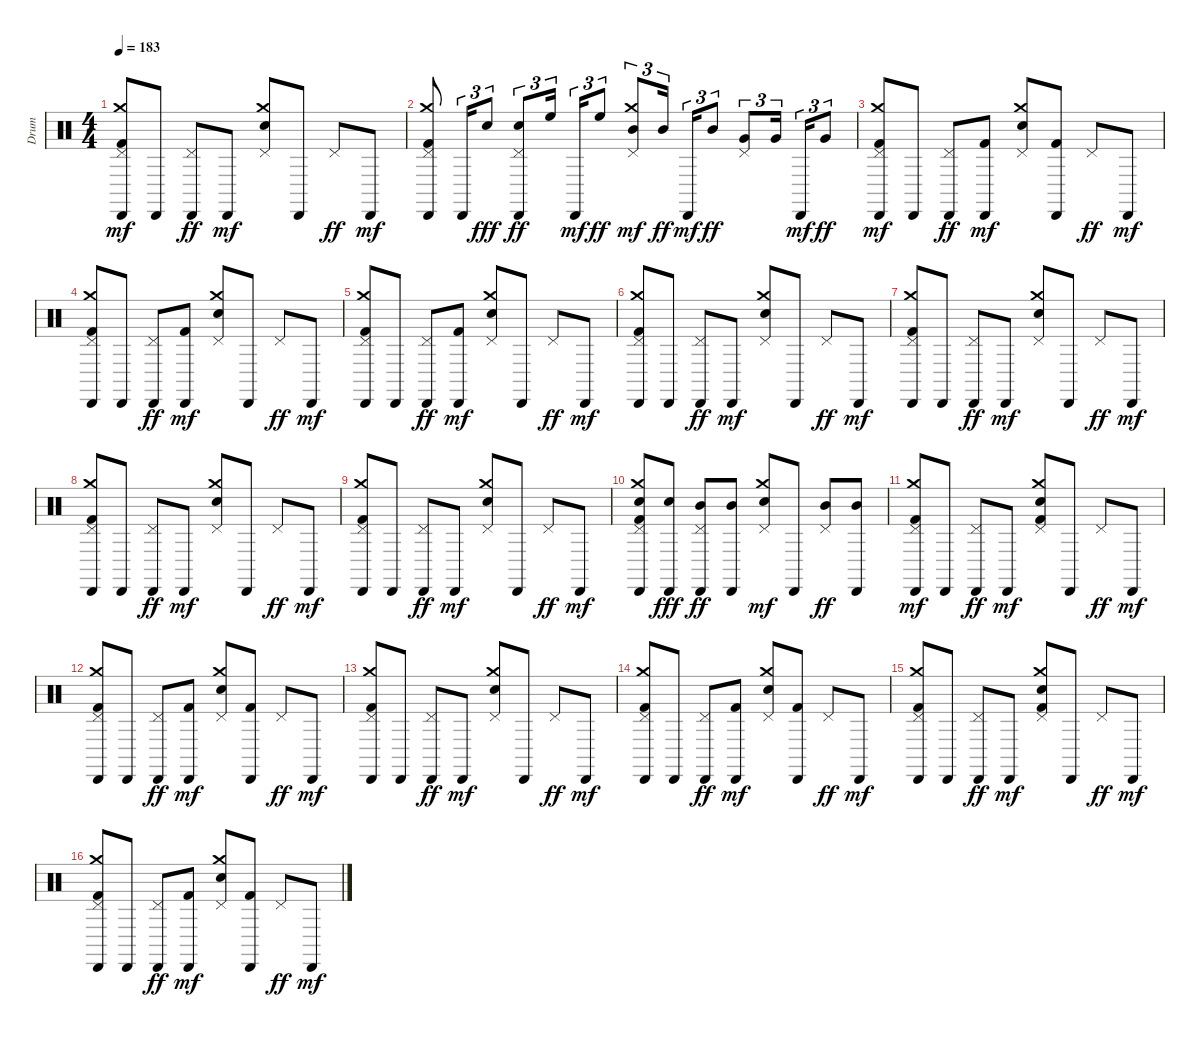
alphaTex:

\track ("Drum" "Drum") {instrument percussion}
\staff {score}
\articulation defaults
\ts (4 4)
\tempo 183
\clef neutral
\ks c
("Cabasa (hit)" "Kick (hit) 2" "Pedal Hi-Hat (hit)" "Crash medium (hit)").8{dy mf} "Cabasa (hit)".8 ("Cabasa (hit)" "Pedal Hi-Hat (hit)").8{dy ff} "Cabasa (hit)".8{dy mf} ("Electric Snare (hit)" "Pedal Hi-Hat (hit)" "Crash medium (hit)").8 "Cabasa (hit)".8 "Pedal Hi-Hat (hit)".8{dy ff} "Cabasa (hit)".8{dy mf} |
("Cabasa (hit)" "Kick (hit) 2" "Pedal Hi-Hat (hit)" "Crash medium (hit)").8 "Cabasa (hit)".16{tu (3 2)} "Electric Snare (hit)".8{tu (3 2) dy fff} ("Cabasa (hit)" "Electric Snare (hit)" "Pedal Hi-Hat (hit)").8{tu (3 2) dy ff} "High Floor Tom (hit)".16{tu (3 2) beam splitsecondary} "Cabasa (hit)".16{tu (3 2) dy mf} "High Floor Tom (hit)".8{tu (3 2) dy ff} ("Mid Tom (hit)" "Pedal Hi-Hat (hit)" "Crash medium (hit)").8{tu (3 2) dy mf} "Mid Tom (hit)".16{tu (3 2) dy ff beam splitsecondary} "Cabasa (hit)".16{tu (3 2) dy mf} "Mid Tom (hit)".8{tu (3 2) dy ff} ("Very Low Tom (hit)" "Pedal Hi-Hat (hit)").8{tu (3 2)} "Very Low Tom (hit)".16{tu (3 2) beam splitsecondary} "Cabasa (hit)".16{tu (3 2) dy mf} "Very Low Tom (hit)".8{tu (3 2) dy ff} |
("Cabasa (hit)" "Kick (hit) 2" "Pedal Hi-Hat (hit)" "Crash medium (hit)").8{dy mf} "Cabasa (hit)".8 ("Cabasa (hit)" "Pedal Hi-Hat (hit)").8{dy ff} ("Cabasa (hit)" "Kick (hit) 2").8{dy mf} ("Electric Snare (hit)" "Pedal Hi-Hat (hit)" "Crash medium (hit)").8 ("Cabasa (hit)" "Kick (hit) 2").8 "Pedal Hi-Hat (hit)".8{dy ff} "Cabasa (hit)".8{dy mf} |
("Cabasa (hit)" "Kick (hit) 2" "Pedal Hi-Hat (hit)" "Crash medium (hit)").8 "Cabasa (hit)".8 ("Cabasa (hit)" "Pedal Hi-Hat (hit)").8{dy ff} ("Cabasa (hit)" "Kick (hit) 2").8{dy mf} ("Electric Snare (hit)" "Pedal Hi-Hat (hit)" "Crash medium (hit)").8 "Cabasa (hit)".8 "Pedal Hi-Hat (hit)".8{dy ff} "Cabasa (hit)".8{dy mf} |
("Cabasa (hit)" "Kick (hit) 2" "Pedal Hi-Hat (hit)" "Crash medium (hit)").8 "Cabasa (hit)".8 ("Cabasa (hit)" "Pedal Hi-Hat (hit)").8{dy ff} ("Cabasa (hit)" "Kick (hit) 2").8{dy mf} ("Electric Snare (hit)" "Pedal Hi-Hat (hit)" "Crash medium (hit)").8 "Cabasa (hit)".8 "Pedal Hi-Hat (hit)".8{dy ff} "Cabasa (hit)".8{dy mf} |
("Cabasa (hit)" "Kick (hit) 2" "Pedal Hi-Hat (hit)" "Crash medium (hit)").8 "Cabasa (hit)".8 ("Cabasa (hit)" "Pedal Hi-Hat (hit)").8{dy ff} "Cabasa (hit)".8{dy mf} ("Electric Snare (hit)" "Pedal Hi-Hat (hit)" "Crash medium (hit)").8 "Cabasa (hit)".8 "Pedal Hi-Hat (hit)".8{dy ff} "Cabasa (hit)".8{dy mf} |
("Cabasa (hit)" "Kick (hit) 2" "Pedal Hi-Hat (hit)" "Crash medium (hit)").8 "Cabasa (hit)".8 ("Cabasa (hit)" "Pedal Hi-Hat (hit)").8{dy ff} "Cabasa (hit)".8{dy mf} ("Electric Snare (hit)" "Pedal Hi-Hat (hit)" "Crash medium (hit)").8 "Cabasa (hit)".8 "Pedal Hi-Hat (hit)".8{dy ff} "Cabasa (hit)".8{dy mf} |
("Cabasa (hit)" "Kick (hit) 2" "Pedal Hi-Hat (hit)" "Crash medium (hit)").8 "Cabasa (hit)".8 ("Cabasa (hit)" "Pedal Hi-Hat (hit)").8{dy ff} "Cabasa (hit)".8{dy mf} ("Electric Snare (hit)" "Pedal Hi-Hat (hit)" "Crash medium (hit)").8 "Cabasa (hit)".8 "Pedal Hi-Hat (hit)".8{dy ff} "Cabasa (hit)".8{dy mf} |
("Cabasa (hit)" "Kick (hit) 2" "Pedal Hi-Hat (hit)" "Crash medium (hit)").8 "Cabasa (hit)".8 ("Cabasa (hit)" "Pedal Hi-Hat (hit)").8{dy ff} "Cabasa (hit)".8{dy mf} ("Electric Snare (hit)" "Pedal Hi-Hat (hit)" "Crash medium (hit)").8 "Cabasa (hit)".8 "Pedal Hi-Hat (hit)".8{dy ff} "Cabasa (hit)".8{dy mf} |
("Cabasa (hit)" "Kick (hit) 2" "Electric Snare (hit)" "Pedal Hi-Hat (hit)" "Crash medium (hit)").8 ("Cabasa (hit)" "Electric Snare (hit)").8{dy fff} ("Cabasa (hit)" "Mid Tom (hit)" "Pedal Hi-Hat (hit)").8{dy ff} ("Cabasa (hit)" "Mid Tom (hit)").8 ("Electric Snare (hit)" "Pedal Hi-Hat (hit)" "Crash medium (hit)").8{dy mf} "Cabasa (hit)".8 ("Mid Tom (hit)" "Pedal Hi-Hat (hit)").8{dy ff} ("Cabasa (hit)" "Mid Tom (hit)").8 |
("Cabasa (hit)" "Kick (hit) 2" "Pedal Hi-Hat (hit)" "Crash medium (hit)").8{dy mf} "Cabasa (hit)".8 ("Cabasa (hit)" "Pedal Hi-Hat (hit)").8{dy ff} "Cabasa (hit)".8{dy mf} ("Kick (hit) 2" "Electric Snare (hit)" "Pedal Hi-Hat (hit)" "Crash medium (hit)").8 "Cabasa (hit)".8 "Pedal Hi-Hat (hit)".8{dy ff} "Cabasa (hit)".8{dy mf} |
("Cabasa (hit)" "Kick (hit) 2" "Pedal Hi-Hat (hit)" "Crash medium (hit)").8 "Cabasa (hit)".8 ("Cabasa (hit)" "Pedal Hi-Hat (hit)").8{dy ff} ("Cabasa (hit)" "Kick (hit) 2").8{dy mf} ("Electric Snare (hit)" "Pedal Hi-Hat (hit)" "Crash medium (hit)").8 ("Cabasa (hit)" "Kick (hit) 2").8 "Pedal Hi-Hat (hit)".8{dy ff} "Cabasa (hit)".8{dy mf} |
("Cabasa (hit)" "Kick (hit) 2" "Pedal Hi-Hat (hit)" "Crash medium (hit)").8 "Cabasa (hit)".8 ("Cabasa (hit)" "Pedal Hi-Hat (hit)").8{dy ff} "Cabasa (hit)".8{dy mf} ("Electric Snare (hit)" "Pedal Hi-Hat (hit)" "Crash medium (hit)").8 "Cabasa (hit)".8 "Pedal Hi-Hat (hit)".8{dy ff} "Cabasa (hit)".8{dy mf} |
("Cabasa (hit)" "Kick (hit) 2" "Pedal Hi-Hat (hit)" "Crash medium (hit)").8 "Cabasa (hit)".8 ("Cabasa (hit)" "Pedal Hi-Hat (hit)").8{dy ff} ("Cabasa (hit)" "Kick (hit) 2").8{dy mf} ("Electric Snare (hit)" "Pedal Hi-Hat (hit)" "Crash medium (hit)").8 ("Cabasa (hit)" "Kick (hit) 2").8 "Pedal Hi-Hat (hit)".8{dy ff} "Cabasa (hit)".8{dy mf} |
("Cabasa (hit)" "Kick (hit) 2" "Pedal Hi-Hat (hit)" "Crash medium (hit)").8 "Cabasa (hit)".8 ("Cabasa (hit)" "Pedal Hi-Hat (hit)").8{dy ff} "Cabasa (hit)".8{dy mf} ("Kick (hit) 2" "Electric Snare (hit)" "Pedal Hi-Hat (hit)" "Crash medium (hit)").8 "Cabasa (hit)".8 "Pedal Hi-Hat (hit)".8{dy ff} "Cabasa (hit)".8{dy mf} |
("Cabasa (hit)" "Kick (hit) 2" "Pedal Hi-Hat (hit)" "Crash medium (hit)").8 "Cabasa (hit)".8 ("Cabasa (hit)" "Pedal Hi-Hat (hit)").8{dy ff} ("Cabasa (hit)" "Kick (hit) 2").8{dy mf} ("Electric Snare (hit)" "Pedal Hi-Hat (hit)" "Crash medium (hit)").8 ("Cabasa (hit)" "Kick (hit) 2").8 "Pedal Hi-Hat (hit)".8{dy ff} "Cabasa (hit)".8{dy mf}
